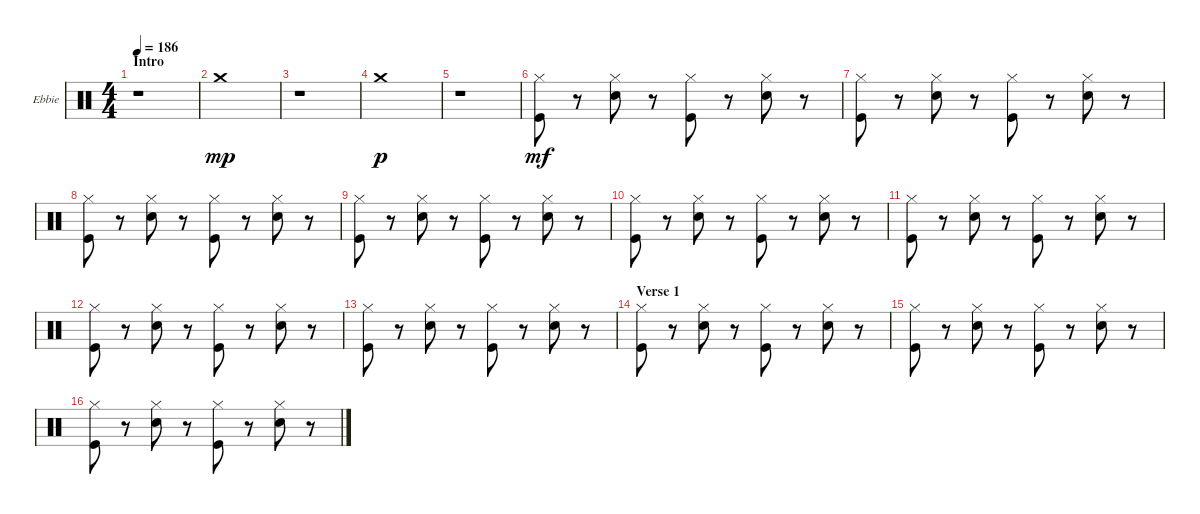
\defaultSystemsLayout 4
\bracketExtendMode groupsimilarinstruments
\firstSystemTrackNameOrientation horizontal
\otherSystemsTrackNameOrientation horizontal
\track ("Ebbie Hardy" "Ebbie") {instrument percussion}
\staff {score}
\articulation defaults
\ts (4 4)
\section ("" "Intro")
\tempo 186
\clef neutral
\scale
0.472222
\ks c
r.1{dy mp} |
\scale
0.263889 "Crash medium (hit)".1 |
\scale
0.263889 r.1 |
\scale
0.333333 "Crash medium (hit)".1{dy p} |
\scale
0.333333 r.1 |
\scale
0.333333 ("Hi-Hat (closed)" "Kick (hit)").8{dy mf} r.8 ("Hi-Hat (closed)" "Snare (hit) 2").8 r.8 ("Hi-Hat (closed)" "Kick (hit)").8 r.8 ("Hi-Hat (closed)" "Snare (hit) 2").8 r.8 |
\scale
0.333333 ("Hi-Hat (closed)" "Kick (hit)").8 r.8 ("Hi-Hat (closed)" "Snare (hit) 2").8 r.8 ("Hi-Hat (closed)" "Kick (hit)").8 r.8 ("Hi-Hat (closed)" "Snare (hit) 2").8 r.8 |
\scale
0.333333 ("Hi-Hat (closed)" "Kick (hit)").8 r.8 ("Hi-Hat (closed)" "Snare (hit) 2").8 r.8 ("Hi-Hat (closed)" "Kick (hit)").8 r.8 ("Hi-Hat (closed)" "Snare (hit) 2").8 r.8 |
\scale
0.333333 ("Hi-Hat (closed)" "Kick (hit)").8 r.8 ("Hi-Hat (closed)" "Snare (hit) 2").8 r.8 ("Hi-Hat (closed)" "Kick (hit)").8 r.8 ("Hi-Hat (closed)" "Snare (hit) 2").8 r.8 |
\scale
0.333333 ("Hi-Hat (closed)" "Kick (hit)").8 r.8 ("Hi-Hat (closed)" "Snare (hit) 2").8 r.8 ("Hi-Hat (closed)" "Kick (hit)").8 r.8 ("Hi-Hat (closed)" "Snare (hit) 2").8 r.8 |
\scale
0.333333 ("Hi-Hat (closed)" "Kick (hit)").8 r.8 ("Hi-Hat (closed)" "Snare (hit) 2").8 r.8 ("Hi-Hat (closed)" "Kick (hit)").8 r.8 ("Hi-Hat (closed)" "Snare (hit) 2").8 r.8 |
\scale
0.333333 ("Hi-Hat (closed)" "Kick (hit)").8 r.8 ("Hi-Hat (closed)" "Snare (hit) 2").8 r.8 ("Hi-Hat (closed)" "Kick (hit)").8 r.8 ("Hi-Hat (closed)" "Snare (hit) 2").8 r.8 |
\scale
0.333333 ("Hi-Hat (closed)" "Kick (hit)").8 r.8 ("Hi-Hat (closed)" "Snare (hit) 2").8 r.8 ("Hi-Hat (closed)" "Kick (hit)").8 r.8 ("Hi-Hat (closed)" "Snare (hit) 2").8 r.8 |
\section ("" "Verse 1")
\scale
0.333333 ("Hi-Hat (closed)" "Kick (hit)").8 r.8 ("Hi-Hat (closed)" "Snare (hit) 2").8 r.8 ("Hi-Hat (closed)" "Kick (hit)").8 r.8 ("Hi-Hat (closed)" "Snare (hit) 2").8 r.8 |
\scale
0.333333 ("Hi-Hat (closed)" "Kick (hit)").8 r.8 ("Hi-Hat (closed)" "Snare (hit) 2").8 r.8 ("Hi-Hat (closed)" "Kick (hit)").8 r.8 ("Hi-Hat (closed)" "Snare (hit) 2").8 r.8 |
\scale
0.333333 ("Hi-Hat (closed)" "Kick (hit)").8 r.8 ("Hi-Hat (closed)" "Snare (hit) 2").8 r.8 ("Hi-Hat (closed)" "Kick (hit)").8 r.8 ("Hi-Hat (closed)" "Snare (hit) 2").8 r.8
